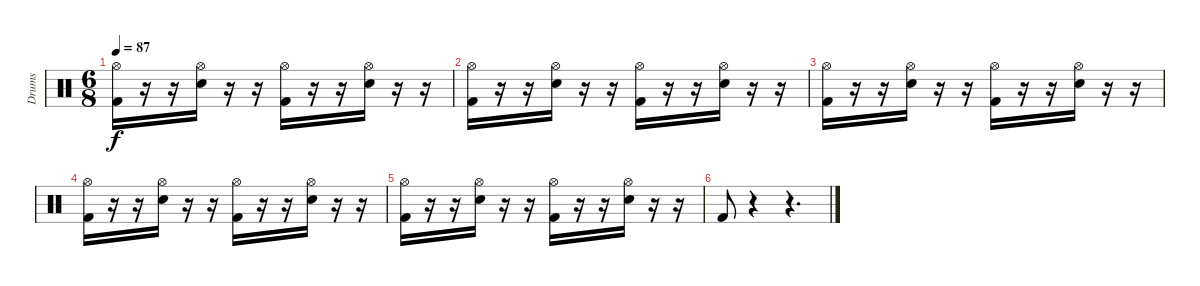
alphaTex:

\track ("Drums" "Drums") {instrument percussion}
\staff {score}
\articulation defaults
\ts (6 8)
\tempo 87
\clef neutral
\ks c
("Hi-Hat (open)" "Kick (hit) 2").16{dy f} r.16 r.16 ("Hi-Hat (open)" "Snare (hit) 2").16 r.16 r.16 ("Hi-Hat (open)" "Kick (hit) 2").16 r.16 r.16 ("Hi-Hat (open)" "Snare (hit) 2").16 r.16 r.16 |
("Hi-Hat (open)" "Kick (hit) 2").16 r.16 r.16 ("Hi-Hat (open)" "Snare (hit) 2").16 r.16 r.16 ("Hi-Hat (open)" "Kick (hit) 2").16 r.16 r.16 ("Hi-Hat (open)" "Snare (hit) 2").16 r.16 r.16 |
("Hi-Hat (open)" "Kick (hit) 2").16 r.16 r.16 ("Hi-Hat (open)" "Snare (hit) 2").16 r.16 r.16 ("Hi-Hat (open)" "Kick (hit) 2").16 r.16 r.16 ("Hi-Hat (open)" "Snare (hit) 2").16 r.16 r.16 |
("Hi-Hat (open)" "Kick (hit) 2").16 r.16 r.16 ("Hi-Hat (open)" "Snare (hit) 2").16 r.16 r.16 ("Hi-Hat (open)" "Kick (hit) 2").16 r.16 r.16 ("Hi-Hat (open)" "Snare (hit) 2").16 r.16 r.16 |
("Hi-Hat (open)" "Kick (hit) 2").16 r.16 r.16 ("Hi-Hat (open)" "Snare (hit) 2").16 r.16 r.16 ("Hi-Hat (open)" "Kick (hit) 2").16 r.16 r.16 ("Hi-Hat (open)" "Snare (hit) 2").16 r.16 r.16 |
"Kick (hit) 2".8 r.4 r.4{d}
